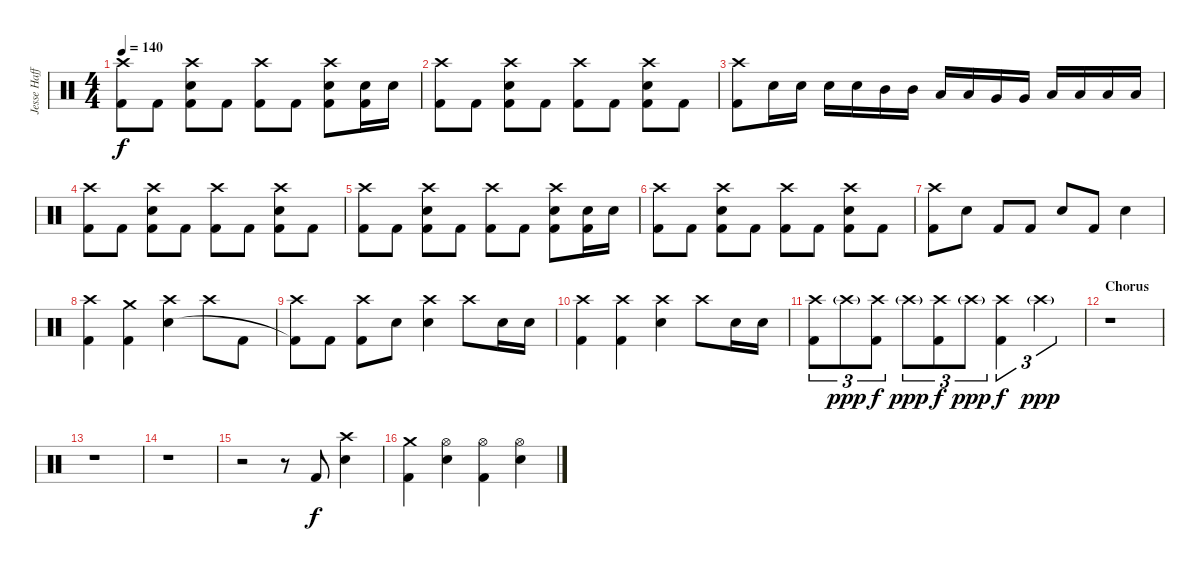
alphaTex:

\track ("Jesse Haff" "Jesse Haff") {instrument percussion}
\staff {score}
\articulation defaults
\ts (4 4)
\tempo 140
\clef neutral
\ks c
("Crash high (hit)" "Kick (hit) 2").8{dy f} "Kick (hit) 2".8 ("Crash high (hit)" "Electric Snare (hit)" "Kick (hit) 2").8 "Kick (hit) 2".8 ("Crash high (hit)" "Kick (hit) 2").8 "Kick (hit) 2".8 ("Crash high (hit)" "Electric Snare (hit)" "Kick (hit) 2").8 ("Electric Snare (hit)" "Kick (hit) 2").16 "Electric Snare (hit)".16 |
("Crash high (hit)" "Kick (hit) 2").8 "Kick (hit) 2".8 ("Crash high (hit)" "Electric Snare (hit)" "Kick (hit) 2").8 "Kick (hit) 2".8 ("Crash high (hit)" "Kick (hit) 2").8 "Kick (hit) 2".8 ("Crash high (hit)" "Electric Snare (hit)" "Kick (hit) 2").8 "Kick (hit) 2".8 |
("Crash high (hit)" "Kick (hit) 2").8 "Electric Snare (hit)".16 "Electric Snare (hit)".16 "Electric Snare (hit)".16 "Electric Snare (hit)".16 "Mid Tom (hit)".16 "Mid Tom (hit)".16 "Low Tom (hit)".16 "Low Tom (hit)".16 "Very Low Tom (hit)".16 "Very Low Tom (hit)".16 "Low Floor Tom (hit)".16 "Low Floor Tom (hit)".16 "Low Floor Tom (hit)".16 "Low Floor Tom (hit)".16 |
("Crash high (hit)" "Kick (hit) 2").8 "Kick (hit) 2".8 ("Crash high (hit)" "Electric Snare (hit)" "Kick (hit) 2").8 "Kick (hit) 2".8 ("Crash high (hit)" "Kick (hit) 2").8 "Kick (hit) 2".8 ("Crash high (hit)" "Electric Snare (hit)" "Kick (hit) 2").8 "Kick (hit) 2".8 |
("Crash high (hit)" "Kick (hit) 2").8 "Kick (hit) 2".8 ("Crash high (hit)" "Electric Snare (hit)" "Kick (hit) 2").8 "Kick (hit) 2".8 ("Crash high (hit)" "Kick (hit) 2").8 "Kick (hit) 2".8 ("Crash high (hit)" "Electric Snare (hit)" "Kick (hit) 2").8 ("Electric Snare (hit)" "Kick (hit) 2").16 "Electric Snare (hit)".16 |
("Crash high (hit)" "Kick (hit) 2").8 "Kick (hit) 2".8 ("Crash high (hit)" "Electric Snare (hit)" "Kick (hit) 2").8 "Kick (hit) 2".8 ("Crash high (hit)" "Kick (hit) 2").8 "Kick (hit) 2".8 ("Crash high (hit)" "Electric Snare (hit)" "Kick (hit) 2").8 "Kick (hit) 2".8 |
("Crash high (hit)" "Kick (hit) 2").8 "Electric Snare (hit)".8 "Kick (hit) 2".8 "Kick (hit) 2".8 "Electric Snare (hit)".8 "Kick (hit) 2".8 "Electric Snare (hit)".4 |
("Crash high (hit)" "Kick (hit) 2").4 ("Crash medium (hit)" "Kick (hit) 2").4 ("Crash high (hit)" "Electric Snare (hit)").4 "Crash high (hit)".8 "Kick (hit) 2".8 |
("Crash high (hit)" "Kick (hit) 2"{t}).8 "Kick (hit) 2".8 ("Crash high (hit)" "Kick (hit) 2").8 "Electric Snare (hit)".8 ("Crash high (hit)" "Electric Snare (hit)").4 "Crash high (hit)".8 "Electric Snare (hit)".16 "Electric Snare (hit)".16 |
("Crash high (hit)" "Kick (hit) 2").4 ("Crash high (hit)" "Kick (hit) 2").4 ("Crash high (hit)" "Electric Snare (hit)").4 "Crash high (hit)".8 "Electric Snare (hit)".16 "Electric Snare (hit)".16 |
("Crash high (hit)" "Kick (hit) 2").8{tu (3 2)} "Crash high (hit)"{g}.8{tu (3 2) dy ppp} ("Crash high (hit)" "Kick (hit) 2").8{tu (3 2) dy f} "Crash high (hit)"{g}.8{tu (3 2) dy ppp} ("Crash high (hit)" "Kick (hit) 2").8{tu (3 2) dy f} "Crash high (hit)"{g}.8{tu (3 2) dy ppp} ("Crash high (hit)" "Kick (hit) 2").4{tu (3 2) dy f} "Crash high (hit)"{g}.2{tu (3 2) dy ppp} |
\section ("" "Chorus")
r.1 |
r.1 |
r.1 |
r.2 r.8 "Kick (hit) 2".8{dy f} ("Crash high (hit)" "Electric Snare (hit)").4 |
("Crash medium (hit)" "Kick (hit) 2").4 ("Hi-Hat (open)" "Electric Snare (hit)").4 ("Hi-Hat (open)" "Kick (hit) 2").4 ("Hi-Hat (open)" "Electric Snare (hit)").4
